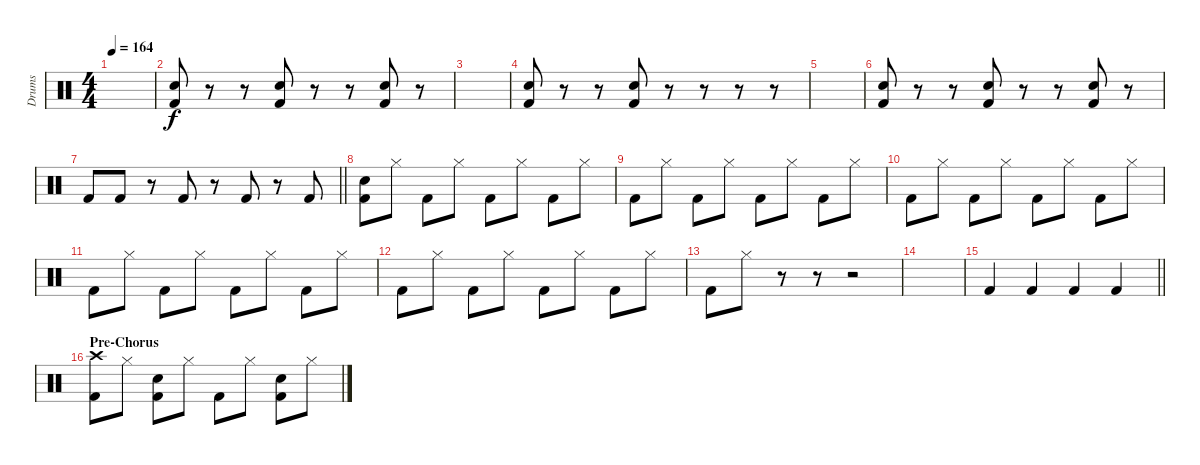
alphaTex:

\track ("Drums" "Drums") {instrument percussion}
\staff {score}
\articulation defaults
\ts (4 4)
\tempo 164
\clef neutral
\ks c
|
("Electric Snare (hit)" "Kick (hit) 2").8 r.8 r.8 ("Electric Snare (hit)" "Kick (hit) 2").8 r.8 r.8 ("Electric Snare (hit)" "Kick (hit) 2").8 r.8 |
|
("Electric Snare (hit)" "Kick (hit) 2").8 r.8 r.8 ("Electric Snare (hit)" "Kick (hit) 2").8 r.8 r.8 r.8 r.8 |
|
("Electric Snare (hit)" "Kick (hit) 2").8 r.8 r.8 ("Electric Snare (hit)" "Kick (hit) 2").8 r.8 r.8 ("Electric Snare (hit)" "Kick (hit) 2").8 r.8 |
\barLineRight lightlight "Kick (hit) 2".8 "Kick (hit) 2".8
r.8 "Kick (hit) 2".8 r.8 "Kick (hit) 2".8 r.8 "Kick (hit) 2".8 |
\section ("" "")
("Electric Snare (hit)" "Kick (hit) 2").8 "Hi-Hat (closed)".8 "Kick (hit) 2".8 "Hi-Hat (closed)".8 "Kick (hit) 2".8 "Hi-Hat (closed)".8 "Kick (hit) 2".8 "Hi-Hat (closed)".8 |
"Kick (hit) 2".8 "Hi-Hat (closed)".8 "Kick (hit) 2".8 "Hi-Hat (closed)".8 "Kick (hit) 2".8 "Hi-Hat (closed)".8 "Kick (hit) 2".8 "Hi-Hat (closed)".8 |
"Kick (hit) 2".8 "Hi-Hat (closed)".8 "Kick (hit) 2".8 "Hi-Hat (closed)".8 "Kick (hit) 2".8 "Hi-Hat (closed)".8 "Kick (hit) 2".8 "Hi-Hat (closed)".8 |
"Kick (hit) 2".8 "Hi-Hat (closed)".8 "Kick (hit) 2".8 "Hi-Hat (closed)".8 "Kick (hit) 2".8 "Hi-Hat (closed)".8 "Kick (hit) 2".8 "Hi-Hat (closed)".8 |
"Kick (hit) 2".8 "Hi-Hat (closed)".8 "Kick (hit) 2".8 "Hi-Hat (closed)".8 "Kick (hit) 2".8 "Hi-Hat (closed)".8 "Kick (hit) 2".8 "Hi-Hat (closed)".8 |
"Kick (hit) 2".8 "Hi-Hat (closed)".8 r.8 r.8 r.2 |
|
\barLineRight lightlight "Kick (hit) 2".4 "Kick (hit) 2".4 "Kick (hit) 2".4 "Kick (hit) 2".4
|
\section ("" "Pre-Chorus")
("Crash high (hit)" "Kick (hit) 2").8 "Hi-Hat (closed)".8 ("Electric Snare (hit)" "Kick (hit) 2").8 "Hi-Hat (closed)".8 "Kick (hit) 2".8 "Hi-Hat (closed)".8 ("Electric Snare (hit)" "Kick (hit) 2").8 "Hi-Hat (closed)".8
